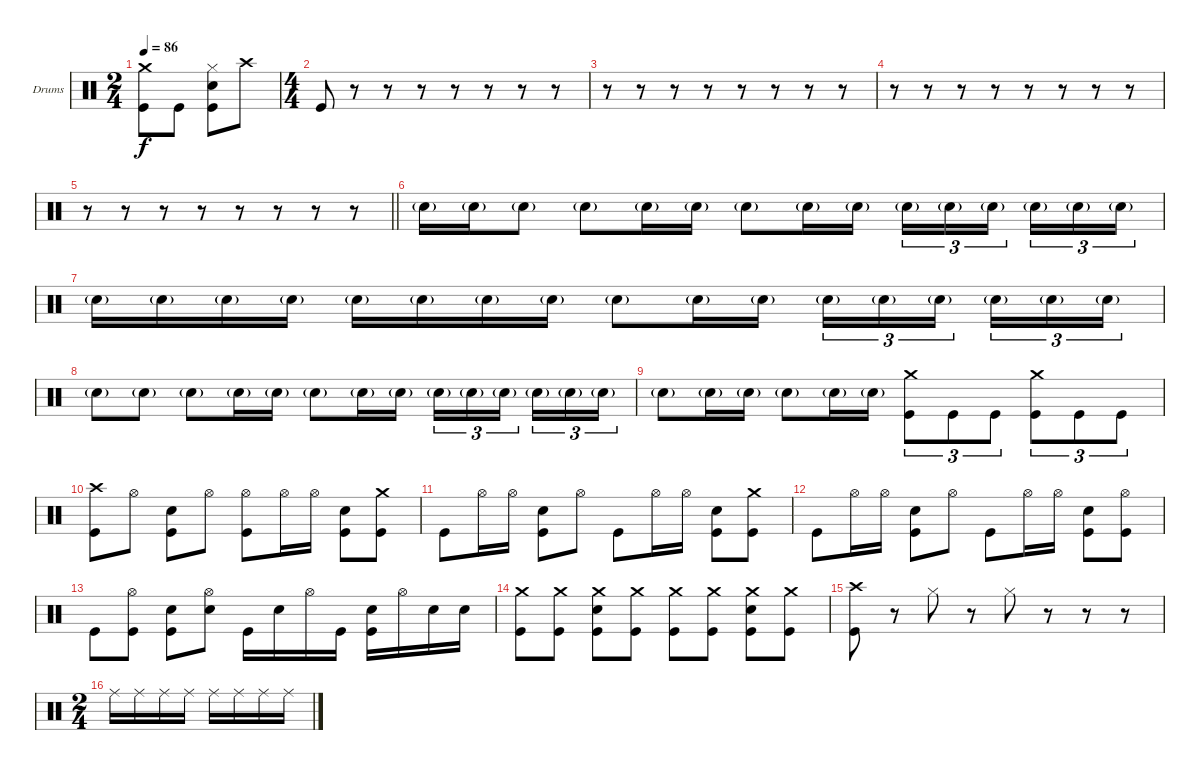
\defaultSystemsLayout 4
\bracketExtendMode groupsimilarinstruments
\firstSystemTrackNameOrientation horizontal
\otherSystemsTrackNameOrientation horizontal
\track ("Drumkit" "Drums") {instrument percussion}
\staff {score}
\articulation defaults
\ts (2 4)
\tempo 86
\clef neutral
\scale
0.472222
\ks c
("Crash medium (hit)" "Kick (hit)").8{dy f} "Kick (hit)".8 ("Hi-Hat (closed)" "Snare (hit) 2" "Kick (hit)").8 "Crash high (hit)".8 |
\ts (4 4)
\scale
0.472222 "Kick (hit)".8 r.8 r.8 r.8 r.8 r.8 r.8 r.8 |
\scale
0.263889 r.8 r.8 r.8 r.8 r.8 r.8 r.8 r.8 |
\scale
0.263889 r.8 r.8 r.8 r.8 r.8 r.8 r.8 r.8 |
\scale
0.333333
\barLineRight lightlight
r.8 r.8 r.8 r.8 r.8 r.8 r.8 r.8 |
\scale
0.333333 "Snare (hit) 2"{g}.16 "Snare (hit) 2"{g}.16 "Snare (hit) 2"{g}.8 "Snare (hit) 2"{g}.8 "Snare (hit) 2"{g}.16 "Snare (hit) 2"{g}.16 "Snare (hit) 2"{g}.8 "Snare (hit) 2"{g}.16 "Snare (hit) 2"{g}.16 "Snare (hit) 2"{g}.16{tu (3 2)} "Snare (hit) 2"{g}.16{tu (3 2)} "Snare (hit) 2"{g}.16{tu (3 2)} "Snare (hit) 2"{g}.16{tu (3 2)} "Snare (hit) 2"{g}.16{tu (3 2)} "Snare (hit) 2"{g}.16{tu (3 2)} |
\scale
0.333333 "Snare (hit) 2"{g}.16 "Snare (hit) 2"{g}.16 "Snare (hit) 2"{g}.16 "Snare (hit) 2"{g}.16 "Snare (hit) 2"{g}.16 "Snare (hit) 2"{g}.16 "Snare (hit) 2"{g}.16 "Snare (hit) 2"{g}.16 "Snare (hit) 2"{g}.8 "Snare (hit) 2"{g}.16 "Snare (hit) 2"{g}.16 "Snare (hit) 2"{g}.16{tu (3 2)} "Snare (hit) 2"{g}.16{tu (3 2)} "Snare (hit) 2"{g}.16{tu (3 2)} "Snare (hit) 2"{g}.16{tu (3 2)} "Snare (hit) 2"{g}.16{tu (3 2)} "Snare (hit) 2"{g}.16{tu (3 2)} |
\scale
0.333333 "Snare (hit) 2"{g}.8 "Snare (hit) 2"{g}.8 "Snare (hit) 2"{g}.8 "Snare (hit) 2"{g}.16 "Snare (hit) 2"{g}.16 "Snare (hit) 2"{g}.8 "Snare (hit) 2"{g}.16 "Snare (hit) 2"{g}.16 "Snare (hit) 2"{g}.16{tu (3 2)} "Snare (hit) 2"{g}.16{tu (3 2)} "Snare (hit) 2"{g}.16{tu (3 2)} "Snare (hit) 2"{g}.16{tu (3 2)} "Snare (hit) 2"{g}.16{tu (3 2)} "Snare (hit) 2"{g}.16{tu (3 2)} |
\scale
0.333333 "Snare (hit) 2"{g}.8 "Snare (hit) 2"{g}.16 "Snare (hit) 2"{g}.16 "Snare (hit) 2"{g}.8 "Snare (hit) 2"{g}.16 "Snare (hit) 2"{g}.16 ("Crash medium (hit)" "Kick (hit)").8{tu (3 2)} "Kick (hit)".8{tu (3 2)} "Kick (hit)".8{tu (3 2)} ("Crash medium (hit)" "Kick (hit)").8{tu (3 2)} "Kick (hit)".8{tu (3 2)} "Kick (hit)".8{tu (3 2)} |
\scale
0.333333 ("Crash high (hit)" "Kick (hit)").8 "Hi-Hat (open)".8 ("Snare (hit) 2" "Kick (hit)").8 "Hi-Hat (open)".8 ("Hi-Hat (open)" "Kick (hit)").8 "Hi-Hat (open)".16 "Hi-Hat (open)".16 ("Snare (hit) 2" "Kick (hit)").8 ("Crash medium (hit)" "Kick (hit)").8 |
\scale
0.333333 "Kick (hit)".8 "Hi-Hat (open)".16 "Hi-Hat (open)".16 ("Snare (hit) 2" "Kick (hit)").8 "Hi-Hat (open)".8 "Kick (hit)".8 "Hi-Hat (open)".16 "Hi-Hat (open)".16 ("Snare (hit) 2" "Kick (hit)").8 ("Crash medium (hit)" "Kick (hit)").8 |
\scale
0.333333 "Kick (hit)".8 "Hi-Hat (open)".16 "Hi-Hat (open)".16 ("Snare (hit) 2" "Kick (hit)").8 "Hi-Hat (open)".8 "Kick (hit)".8 "Hi-Hat (open)".16 "Hi-Hat (open)".16 ("Snare (hit) 2" "Kick (hit)").8 ("Hi-Hat (open)" "Kick (hit)").8 |
\scale
0.333333 "Kick (hit)".8 ("Hi-Hat (open)" "Kick (hit)").8 ("Snare (hit) 2" "Kick (hit)").8 ("Hi-Hat (open)" "Snare (hit) 2").8 "Kick (hit)".16 "Snare (hit) 2".16 "Hi-Hat (open)".16 "Kick (hit)".16 ("Snare (hit) 2" "Kick (hit)").16 "Hi-Hat (open)".16 "Snare (hit) 2".16 "Snare (hit) 2".16 |
\scale
0.263889 ("Crash medium (hit)" "Kick (hit)").8 ("Crash medium (hit)" "Kick (hit)").8 ("Crash medium (hit)" "Snare (hit) 2" "Kick (hit)").8 ("Crash medium (hit)" "Kick (hit)").8 ("Crash medium (hit)" "Kick (hit)").8 ("Crash medium (hit)" "Kick (hit)").8 ("Crash medium (hit)" "Snare (hit) 2" "Kick (hit)").8 ("Crash medium (hit)" "Kick (hit)").8 |
\scale
0.263889 ("Crash high (hit)" "Kick (hit)").8 r.8 "Hi-Hat (closed)".8 r.8 "Hi-Hat (closed)".8 r.8 r.8 r.8 |
\ts (2 4)
\scale
0.472222 "Ride (middle)".16 "Ride (middle)".16 "Ride (middle)".16 "Ride (middle)".16 "Ride (middle)".16 "Ride (middle)".16 "Ride (middle)".16 "Ride (middle)".16
